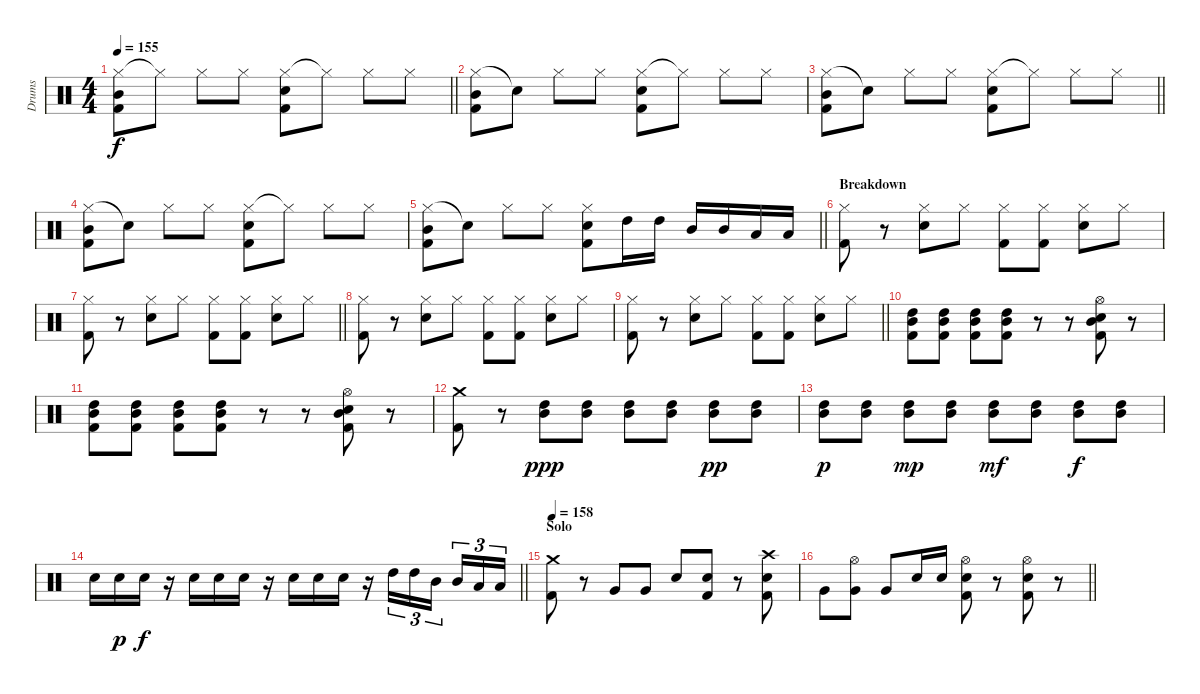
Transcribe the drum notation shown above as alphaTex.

\track ("Drums" "Drums") {instrument percussion}
\staff
\articulation defaults
\ts (4 4)
\tempo 155
\clef neutral
\barLineRight lightlight
\ks c
("Hi-Hat (closed)" "Mid Tom (hit)" "Kick (hit) 2").8{dy f} "Hi-Hat (closed)"{t}.8 "Hi-Hat (closed)".8 "Hi-Hat (closed)".8 ("Hi-Hat (closed)" "Electric Snare (hit)" "Kick (hit) 2").8 "Hi-Hat (closed)"{t}.8 "Hi-Hat (closed)".8 "Hi-Hat (closed)".8 |
("Hi-Hat (closed)" "Mid Tom (hit)" "Kick (hit) 2").8 "Snare (hit)"{t}.8 "Hi-Hat (closed)".8 "Hi-Hat (closed)".8 ("Hi-Hat (closed)" "Electric Snare (hit)" "Kick (hit) 2").8 "Hi-Hat (closed)"{t}.8 "Hi-Hat (closed)".8 "Hi-Hat (closed)".8 |
\barLineRight lightlight
("Hi-Hat (closed)" "Mid Tom (hit)" "Kick (hit) 2").8 "Snare (hit)"{t}.8 "Hi-Hat (closed)".8 "Hi-Hat (closed)".8 ("Hi-Hat (closed)" "Electric Snare (hit)" "Kick (hit) 2").8 "Hi-Hat (closed)"{t}.8 "Hi-Hat (closed)".8 "Hi-Hat (closed)".8 |
("Hi-Hat (closed)" "Mid Tom (hit)" "Kick (hit) 2").8 "Snare (hit)"{t}.8 "Hi-Hat (closed)".8 "Hi-Hat (closed)".8 ("Hi-Hat (closed)" "Electric Snare (hit)" "Kick (hit) 2").8 "Hi-Hat (closed)"{t}.8 "Hi-Hat (closed)".8 "Hi-Hat (closed)".8 |
\barLineRight lightlight
("Hi-Hat (closed)" "Mid Tom (hit)" "Kick (hit) 2").8 "Snare (hit)"{t}.8 "Hi-Hat (closed)".8 "Hi-Hat (closed)".8 ("Hi-Hat (closed)" "Electric Snare (hit)" "Kick (hit) 2").8 "High Tom (hit)".16 "High Tom (hit)".16 "Mid Tom (hit)".16 "Mid Tom (hit)".16 "Low Tom (hit)".16 "Low Tom (hit)".16 |
\section ("" "Breakdown")
("Hi-Hat (closed)" "Kick (hit) 2").8 r.8 ("Hi-Hat (closed)" "Electric Snare (hit)").8 "Hi-Hat (closed)".8 ("Hi-Hat (closed)" "Kick (hit) 2").8 ("Hi-Hat (closed)" "Kick (hit) 2").8 ("Hi-Hat (closed)" "Electric Snare (hit)").8 "Hi-Hat (closed)".8 |
\barLineRight lightlight
("Hi-Hat (closed)" "Kick (hit) 2").8 r.8 ("Hi-Hat (closed)" "Electric Snare (hit)").8 "Hi-Hat (closed)".8 ("Hi-Hat (closed)" "Kick (hit) 2").8 ("Hi-Hat (closed)" "Kick (hit) 2").8 ("Hi-Hat (closed)" "Electric Snare (hit)").8 "Hi-Hat (closed)".8 |
("Hi-Hat (closed)" "Kick (hit) 2").8 r.8 ("Hi-Hat (closed)" "Electric Snare (hit)").8 "Hi-Hat (closed)".8 ("Hi-Hat (closed)" "Kick (hit) 2").8 ("Hi-Hat (closed)" "Kick (hit) 2").8 ("Hi-Hat (closed)" "Electric Snare (hit)").8 "Hi-Hat (closed)".8 |
\barLineRight lightlight
("Hi-Hat (closed)" "Kick (hit) 2").8 r.8 ("Hi-Hat (closed)" "Electric Snare (hit)").8 "Hi-Hat (closed)".8 ("Hi-Hat (closed)" "Kick (hit) 2").8 ("Hi-Hat (closed)" "Kick (hit) 2").8 ("Hi-Hat (closed)" "Electric Snare (hit)").8 "Hi-Hat (closed)".8 |
("High Tom (hit)" "Mid Tom (hit)" "Kick (hit) 2").8 ("High Tom (hit)" "Mid Tom (hit)" "Kick (hit) 2").8 ("High Tom (hit)" "Mid Tom (hit)" "Kick (hit) 2").8 ("High Tom (hit)" "Mid Tom (hit)" "Kick (hit) 2").8 r.8 r.8 ("Hi-Hat (open)" "Electric Snare (hit)" "Mid Tom (hit)" "Kick (hit) 2").8 r.8 |
("High Tom (hit)" "Mid Tom (hit)" "Kick (hit) 2").8 ("High Tom (hit)" "Mid Tom (hit)" "Kick (hit) 2").8 ("High Tom (hit)" "Mid Tom (hit)" "Kick (hit) 2").8 ("High Tom (hit)" "Mid Tom (hit)" "Kick (hit) 2").8 r.8 r.8 ("Hi-Hat (open)" "Electric Snare (hit)" "Mid Tom (hit)" "Kick (hit) 2").8 r.8 |
("Crash medium (hit)" "Kick (hit) 2").8 r.8 ("High Tom (hit)" "Mid Tom (hit)").8{dy ppp} ("High Tom (hit)" "Mid Tom (hit)").8 ("High Tom (hit)" "Mid Tom (hit)").8 ("High Tom (hit)" "Mid Tom (hit)").8 ("High Tom (hit)" "Mid Tom (hit)").8{dy pp} ("High Tom (hit)" "Mid Tom (hit)").8 |
("High Tom (hit)" "Mid Tom (hit)").8{dy p} ("High Tom (hit)" "Mid Tom (hit)").8 ("High Tom (hit)" "Mid Tom (hit)").8{dy mp} ("High Tom (hit)" "Mid Tom (hit)").8 ("High Tom (hit)" "Mid Tom (hit)").8{dy mf} ("High Tom (hit)" "Mid Tom (hit)").8 ("High Tom (hit)" "Mid Tom (hit)").8{dy f} ("High Tom (hit)" "Mid Tom (hit)").8 |
\barLineRight lightlight "Electric Snare (hit)".16 "Electric Snare (hit)".16{dy p} "Electric Snare (hit)".16{dy f}
r.16 "Electric Snare (hit)".16 "Electric Snare (hit)".16 "Electric Snare (hit)".16 r.16 "Electric Snare (hit)".16 "Electric Snare (hit)".16 "Electric Snare (hit)".16 r.16 "High Tom (hit)".16{tu (3 2)} "High Tom (hit)".16{tu (3 2)} "Mid Tom (hit)".16{tu (3 2) beam splitsecondary} "Mid Tom (hit)".16{tu (3 2)} "Low Tom (hit)".16{tu (3 2)} "Low Tom (hit)".16{tu (3 2)} |
\section ("" "Solo")
\tempo 158
("Crash medium (hit)" "Kick (hit) 2").8 r.8 "Very Low Tom (hit)".8 "Very Low Tom (hit)".8 "Electric Snare (hit)".8 ("Electric Snare (hit)" "Kick (hit) 2").8 r.8 ("Crash high (hit)" "Electric Snare (hit)" "Kick (hit) 2").8 |
\barLineRight lightlight "Very Low Tom (hit)".8
("Hi-Hat (open)" "Very Low Tom (hit)").8 "Very Low Tom (hit)".8 "Electric Snare (hit)".16 "Electric Snare (hit)".16 ("Hi-Hat (open)" "Electric Snare (hit)" "Kick (hit) 2").8 r.8 ("Hi-Hat (open)" "Electric Snare (hit)" "Kick (hit) 2").8 r.8
